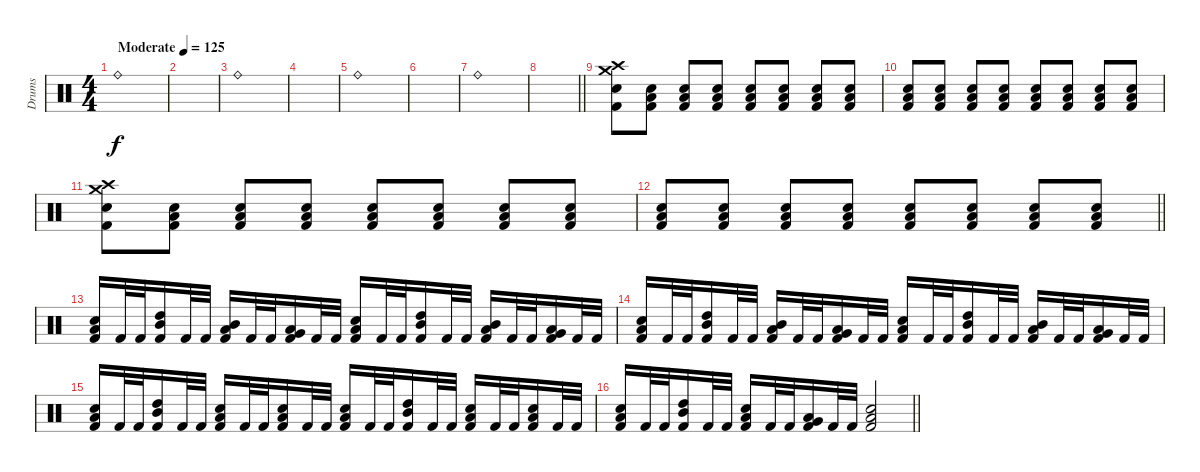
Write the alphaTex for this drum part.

\track ("Drums" "Drums") {instrument percussion}
\staff {score}
\articulation defaults
\ts (4 4)
\tempo (125 "Moderate")
\clef neutral
\ks c "Ride (bell)".1{dy f}
|
|
"Ride (bell)".1 |
|
"Ride (bell)".1 |
|
"Ride (bell)".1 |
\barLineRight lightlight
|
\section ("" "")
("Crash medium (hit)" "Crash high (hit)" "Kick (hit) 2" "Electric Snare (hit)").8 ("Kick (hit) 2" "Low Floor Tom (hit)" "Electric Snare (hit)").8 ("Kick (hit) 2" "Low Floor Tom (hit)" "Electric Snare (hit)").8 ("Kick (hit) 2" "Low Floor Tom (hit)" "Electric Snare (hit)").8 ("Kick (hit) 2" "Low Floor Tom (hit)" "Electric Snare (hit)").8 ("Kick (hit) 2" "Low Floor Tom (hit)" "Electric Snare (hit)").8 ("Kick (hit) 2" "Low Floor Tom (hit)" "Electric Snare (hit)").8 ("Kick (hit) 2" "Low Floor Tom (hit)" "Electric Snare (hit)").8 |
("Kick (hit) 2" "Low Floor Tom (hit)" "Electric Snare (hit)").8 ("Kick (hit) 2" "Low Floor Tom (hit)" "Electric Snare (hit)").8 ("Kick (hit) 2" "Low Floor Tom (hit)" "Electric Snare (hit)").8 ("Kick (hit) 2" "Low Floor Tom (hit)" "Electric Snare (hit)").8 ("Kick (hit) 2" "Low Floor Tom (hit)" "Electric Snare (hit)").8 ("Kick (hit) 2" "Low Floor Tom (hit)" "Electric Snare (hit)").8 ("Kick (hit) 2" "Low Floor Tom (hit)" "Electric Snare (hit)").8 ("Kick (hit) 2" "Low Floor Tom (hit)" "Electric Snare (hit)").8 |
("Crash medium (hit)" "Crash high (hit)" "Kick (hit) 2" "Electric Snare (hit)").8 ("Kick (hit) 2" "Low Floor Tom (hit)" "Electric Snare (hit)").8 ("Kick (hit) 2" "Low Floor Tom (hit)" "Electric Snare (hit)").8 ("Kick (hit) 2" "Low Floor Tom (hit)" "Electric Snare (hit)").8 ("Kick (hit) 2" "Low Floor Tom (hit)" "Electric Snare (hit)").8 ("Kick (hit) 2" "Low Floor Tom (hit)" "Electric Snare (hit)").8 ("Kick (hit) 2" "Low Floor Tom (hit)" "Electric Snare (hit)").8 ("Kick (hit) 2" "Low Floor Tom (hit)" "Electric Snare (hit)").8 |
\barLineRight lightlight
("Kick (hit) 2" "Low Floor Tom (hit)" "Electric Snare (hit)").8 ("Kick (hit) 2" "Low Floor Tom (hit)" "Electric Snare (hit)").8 ("Kick (hit) 2" "Low Floor Tom (hit)" "Electric Snare (hit)").8 ("Kick (hit) 2" "Low Floor Tom (hit)" "Electric Snare (hit)").8 ("Kick (hit) 2" "Low Floor Tom (hit)" "Electric Snare (hit)").8 ("Kick (hit) 2" "Low Floor Tom (hit)" "Electric Snare (hit)").8 ("Kick (hit) 2" "Low Floor Tom (hit)" "Electric Snare (hit)").8 ("Kick (hit) 2" "Low Floor Tom (hit)" "Electric Snare (hit)").8 |
\section ("" "")
("Low Floor Tom (hit)" "Electric Snare (hit)" "Kick (hit) 2").16 "Kick (hit) 2".32 "Kick (hit) 2".32 ("High Tom (hit)" "Mid Tom (hit)" "Kick (hit) 2").16 "Kick (hit) 2".32 "Kick (hit) 2".32 ("Mid Tom (hit)" "Low Tom (hit)" "Kick (hit) 2").16 "Kick (hit) 2".32 "Kick (hit) 2".32 ("Very Low Tom (hit)" "Low Tom (hit)" "Kick (hit) 2").16 "Kick (hit) 2".32 "Kick (hit) 2".32 ("Low Floor Tom (hit)" "Electric Snare (hit)" "Kick (hit) 2").16 "Kick (hit) 2".32 "Kick (hit) 2".32 ("High Tom (hit)" "Mid Tom (hit)" "Kick (hit) 2").16 "Kick (hit) 2".32 "Kick (hit) 2".32 ("Mid Tom (hit)" "Low Tom (hit)" "Kick (hit) 2").16 "Kick (hit) 2".32 "Kick (hit) 2".32 ("Very Low Tom (hit)" "Low Tom (hit)" "Kick (hit) 2").16 "Kick (hit) 2".32 "Kick (hit) 2".32 |
("Low Floor Tom (hit)" "Electric Snare (hit)" "Kick (hit) 2").16 "Kick (hit) 2".32 "Kick (hit) 2".32 ("High Tom (hit)" "Mid Tom (hit)" "Kick (hit) 2").16 "Kick (hit) 2".32 "Kick (hit) 2".32 ("Mid Tom (hit)" "Low Tom (hit)" "Kick (hit) 2").16 "Kick (hit) 2".32 "Kick (hit) 2".32 ("Very Low Tom (hit)" "Low Tom (hit)" "Kick (hit) 2").16 "Kick (hit) 2".32 "Kick (hit) 2".32 ("Low Floor Tom (hit)" "Electric Snare (hit)" "Kick (hit) 2").16 "Kick (hit) 2".32 "Kick (hit) 2".32 ("High Tom (hit)" "Mid Tom (hit)" "Kick (hit) 2").16 "Kick (hit) 2".32 "Kick (hit) 2".32 ("Mid Tom (hit)" "Low Tom (hit)" "Kick (hit) 2").16 "Kick (hit) 2".32 "Kick (hit) 2".32 ("Very Low Tom (hit)" "Low Tom (hit)" "Kick (hit) 2").16 "Kick (hit) 2".32 "Kick (hit) 2".32 |
("Low Floor Tom (hit)" "Electric Snare (hit)" "Kick (hit) 2").16 "Kick (hit) 2".32 "Kick (hit) 2".32 ("High Tom (hit)" "Mid Tom (hit)" "Kick (hit) 2").16 "Kick (hit) 2".32 "Kick (hit) 2".32 ("Low Floor Tom (hit)" "Electric Snare (hit)" "Kick (hit) 2").16 "Kick (hit) 2".32 "Kick (hit) 2".32 ("Low Floor Tom (hit)" "Electric Snare (hit)" "Kick (hit) 2").16 "Kick (hit) 2".32 "Kick (hit) 2".32 ("Low Floor Tom (hit)" "Electric Snare (hit)" "Kick (hit) 2").16 "Kick (hit) 2".32 "Kick (hit) 2".32 ("High Tom (hit)" "Mid Tom (hit)" "Kick (hit) 2").16 "Kick (hit) 2".32 "Kick (hit) 2".32 ("Low Floor Tom (hit)" "Electric Snare (hit)" "Kick (hit) 2").16 "Kick (hit) 2".32 "Kick (hit) 2".32 ("Low Floor Tom (hit)" "Electric Snare (hit)" "Kick (hit) 2").16 "Kick (hit) 2".32 "Kick (hit) 2".32 |
\barLineRight lightlight
("Low Floor Tom (hit)" "Electric Snare (hit)" "Kick (hit) 2").16 "Kick (hit) 2".32 "Kick (hit) 2".32 ("High Tom (hit)" "Mid Tom (hit)" "Kick (hit) 2").16 "Kick (hit) 2".32 "Kick (hit) 2".32 ("Low Floor Tom (hit)" "Electric Snare (hit)" "Kick (hit) 2").16 "Kick (hit) 2".32 "Kick (hit) 2".32 ("Very Low Tom (hit)" "Low Tom (hit)" "Kick (hit) 2").16 "Kick (hit) 2".32 "Kick (hit) 2".32 ("Low Floor Tom (hit)" "Electric Snare (hit)" "Kick (hit) 2").2
